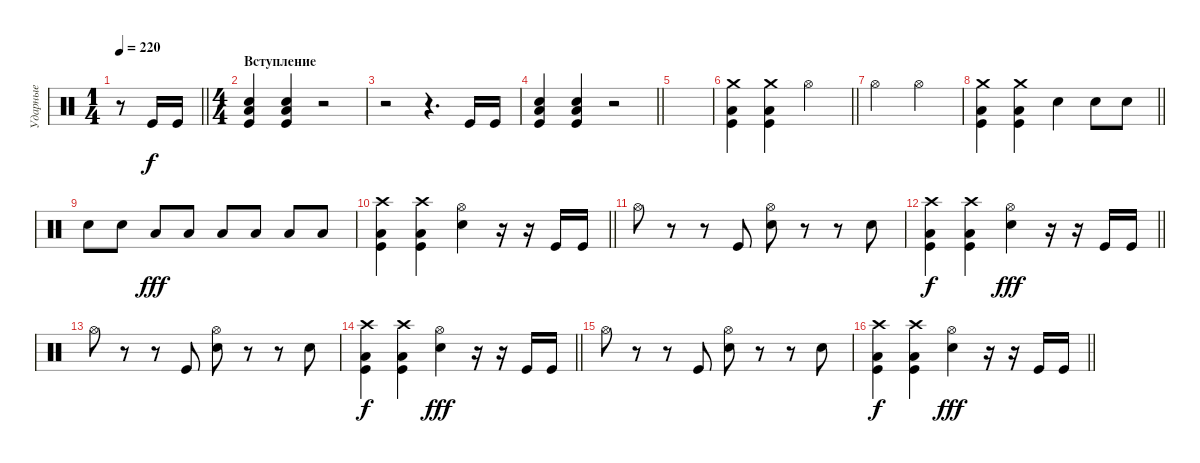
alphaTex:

\track ("Ударные" "Ударные") {instrument percussion}
\staff {score}
\articulation defaults
\ts (1 4)
\tempo 220
\clef neutral
\barLineRight lightlight
\ks c
r.8{dy f} "Kick (hit)".16 "Kick (hit)".16 |
\ts (4 4)
\section ("" "Вступление")
("Low Tom (hit)" "Snare (hit) 2" "Kick (hit)").4 ("Low Tom (hit)" "Snare (hit) 2" "Kick (hit)").4 r.2 |
r.2 r.4{d} "Kick (hit)".16 "Kick (hit)".16 |
\barLineRight lightlight
("Low Tom (hit)" "Snare (hit) 2" "Kick (hit)").4 ("Low Tom (hit)" "Snare (hit) 2" "Kick (hit)").4 r.2 |
\section ("" "")
|
\barLineRight lightlight
("Crash medium (hit)" "Low Tom (hit)" "Kick (hit)").4 ("Crash medium (hit)" "Low Tom (hit)" "Kick (hit)").4 "Hi-Hat (open)".2 |
"Hi-Hat (open)".2 "Hi-Hat (open)".2 |
\barLineRight lightlight
("Crash medium (hit)" "Low Tom (hit)" "Kick (hit)").4 ("Crash medium (hit)" "Low Tom (hit)" "Kick (hit)").4 "Snare (hit) 2".4 "Snare (hit) 2".8 "Snare (hit) 2".8 |
"Snare (hit) 2".8 "Snare (hit) 2".8 "Low Floor Tom (hit)".8{dy fff} "Low Floor Tom (hit)".8 "Low Floor Tom (hit)".8 "Low Tom (hit)".8 "Low Tom (hit)".8 "Low Tom (hit)".8 |
\barLineRight lightlight
("Crash high (hit)" "Low Tom (hit)" "Kick (hit)").4 ("Crash high (hit)" "Low Tom (hit)" "Kick (hit)").4 ("Hi-Hat (open)" "Snare (hit) 2").4 r.16 r.16 "Kick (hit)".16 "Kick (hit)".16 |
"Hi-Hat (open)".8 r.8 r.8 "Kick (hit)".8 ("Hi-Hat (open)" "Snare (hit) 2").8 r.8 r.8 "Snare (hit) 2".8 |
\barLineRight lightlight
("Crash high (hit)" "Low Tom (hit)" "Kick (hit)").4{dy f} ("Crash high (hit)" "Low Tom (hit)" "Kick (hit)").4 ("Hi-Hat (open)" "Snare (hit) 2").4{dy fff} r.16 r.16 "Kick (hit)".16 "Kick (hit)".16 |
"Hi-Hat (open)".8 r.8 r.8 "Kick (hit)".8 ("Hi-Hat (open)" "Snare (hit) 2").8 r.8 r.8 "Snare (hit) 2".8 |
\barLineRight lightlight
("Crash high (hit)" "Low Tom (hit)" "Kick (hit)").4{dy f} ("Crash high (hit)" "Low Tom (hit)" "Kick (hit)").4 ("Hi-Hat (open)" "Snare (hit) 2").4{dy fff} r.16 r.16 "Kick (hit)".16 "Kick (hit)".16 |
"Hi-Hat (open)".8 r.8 r.8 "Kick (hit)".8 ("Hi-Hat (open)" "Snare (hit) 2").8 r.8 r.8 "Snare (hit) 2".8 |
\barLineRight lightlight
("Crash high (hit)" "Low Tom (hit)" "Kick (hit)").4{dy f} ("Crash high (hit)" "Low Tom (hit)" "Kick (hit)").4 ("Hi-Hat (open)" "Snare (hit) 2").4{dy fff} r.16 r.16 "Kick (hit)".16 "Kick (hit)".16
